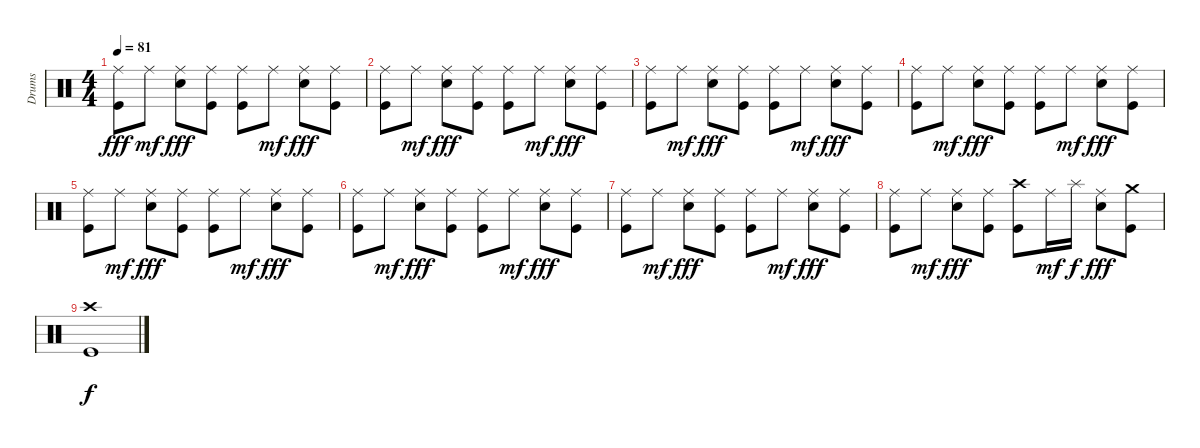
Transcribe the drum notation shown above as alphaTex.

\track ("Drums" "Drums") {instrument percussion}
\staff {score}
\articulation defaults
\ts (4 4)
\tempo 81
\clef neutral
\ks c
("Ride (middle)" "Kick (hit)").8{dy fff} "Ride (middle)".8{dy mf} ("Ride (middle)" "Snare (hit) 2").8{dy fff} ("Ride (middle)" "Kick (hit)").8 ("Ride (middle)" "Kick (hit)").8 "Ride (middle)".8{dy mf} ("Ride (middle)" "Snare (hit) 2").8{dy fff} ("Ride (middle)" "Kick (hit)").8 |
("Ride (middle)" "Kick (hit)").8 "Ride (middle)".8{dy mf} ("Ride (middle)" "Snare (hit) 2").8{dy fff} ("Ride (middle)" "Kick (hit)").8 ("Ride (middle)" "Kick (hit)").8 "Ride (middle)".8{dy mf} ("Ride (middle)" "Snare (hit) 2").8{dy fff} ("Ride (middle)" "Kick (hit)").8 |
("Ride (middle)" "Kick (hit)").8 "Ride (middle)".8{dy mf} ("Ride (middle)" "Snare (hit) 2").8{dy fff} ("Ride (middle)" "Kick (hit)").8 ("Ride (middle)" "Kick (hit)").8 "Ride (middle)".8{dy mf} ("Ride (middle)" "Snare (hit) 2").8{dy fff} ("Ride (middle)" "Kick (hit)").8 |
("Ride (middle)" "Kick (hit)").8 "Ride (middle)".8{dy mf} ("Ride (middle)" "Snare (hit) 2").8{dy fff} ("Ride (middle)" "Kick (hit)").8 ("Ride (middle)" "Kick (hit)").8 "Ride (middle)".8{dy mf} ("Ride (middle)" "Snare (hit) 2").8{dy fff} ("Ride (middle)" "Kick (hit)").8 |
("Ride (middle)" "Kick (hit)").8{volume 1} "Ride (middle)".8{dy mf} ("Ride (middle)" "Snare (hit) 2").8{dy fff} ("Ride (middle)" "Kick (hit)").8 ("Ride (middle)" "Kick (hit)").8 "Ride (middle)".8{dy mf} ("Ride (middle)" "Snare (hit) 2").8{dy fff} ("Ride (middle)" "Kick (hit)").8 |
("Ride (middle)" "Kick (hit)").8 "Ride (middle)".8{dy mf} ("Ride (middle)" "Snare (hit) 2").8{dy fff} ("Ride (middle)" "Kick (hit)").8 ("Ride (middle)" "Kick (hit)").8 "Ride (middle)".8{dy mf} ("Ride (middle)" "Snare (hit) 2").8{dy fff} ("Ride (middle)" "Kick (hit)").8 |
("Ride (middle)" "Kick (hit)").8 "Ride (middle)".8{dy mf} ("Ride (middle)" "Snare (hit) 2").8{dy fff} ("Ride (middle)" "Kick (hit)").8 ("Ride (middle)" "Kick (hit)").8 "Ride (middle)".8{dy mf} ("Ride (middle)" "Snare (hit) 2").8{dy fff} ("Ride (middle)" "Kick (hit)").8 |
("Ride (middle)" "Kick (hit)").8 "Ride (middle)".8{dy mf} ("Ride (middle)" "Snare (hit) 2").8{dy fff} ("Ride (middle)" "Kick (hit)").8 ("Crash high (hit)" "Kick (hit)").8 "Ride (middle)".16{dy mf} "Splash (hit)".16{dy f} ("Ride (middle)" "Snare (hit) 2").8{dy fff} ("Crash medium (hit)" "Kick (hit)").8 |
("Crash high (hit)" "Kick (hit)").1{dy f}
